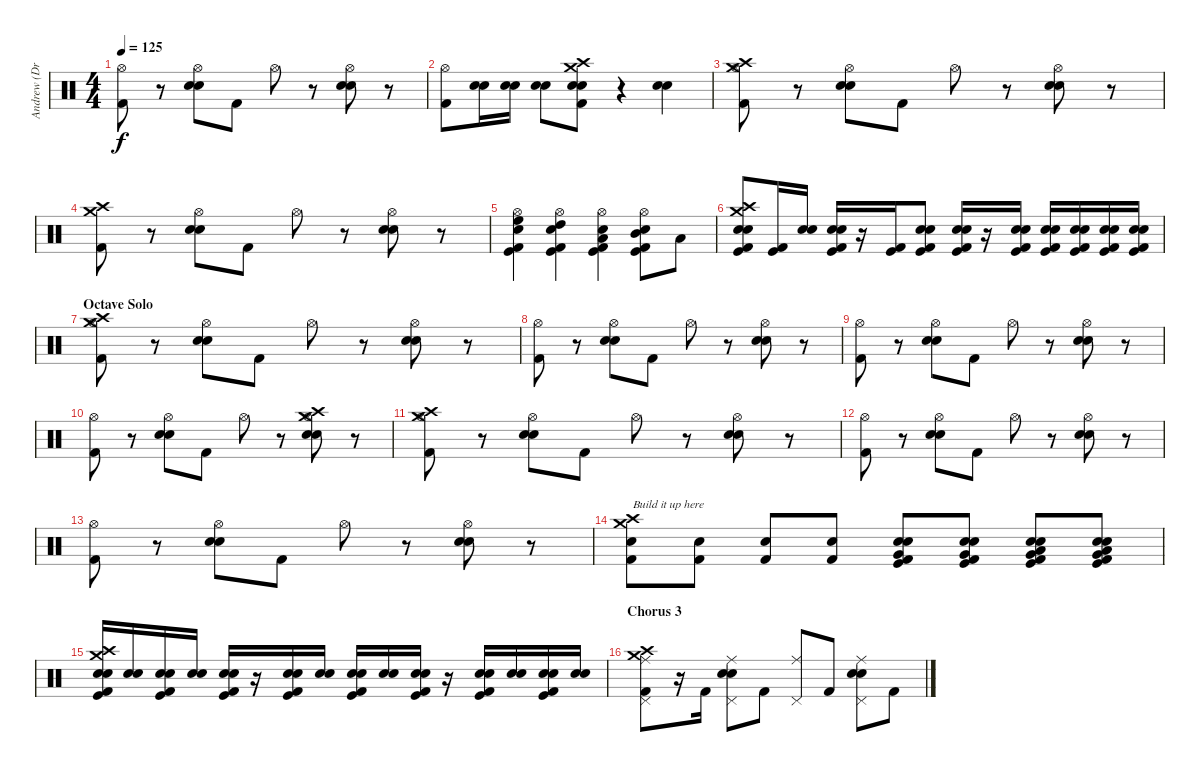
\track ("Andrew (Drums)" "Andrew (Dr") {instrument percussion}
\staff {score}
\articulation defaults
\ts (4 4)
\tempo 125
\clef neutral
\ks c
("Hi-Hat (open)" "Kick (hit) 2").8{dy f} r.8 ("Hi-Hat (open)" "Snare (hit) 2" "Electric Snare (hit)").8 "Kick (hit) 2".8 "Hi-Hat (open)".8 r.8 ("Hi-Hat (open)" "Snare (hit) 2" "Electric Snare (hit)").8 r.8 |
("Hi-Hat (open)" "Kick (hit) 2").8 ("Electric Snare (hit)" "Snare (hit) 2").16 ("Electric Snare (hit)" "Snare (hit) 2").16 ("Snare (hit) 2" "Electric Snare (hit)").8 ("Crash medium (hit)" "Crash high (hit)" "Electric Snare (hit)" "Snare (hit) 2" "Kick (hit) 2").8 r.4 ("Snare (hit) 2" "Electric Snare (hit)").4 |
("Crash medium (hit)" "Crash high (hit)" "Hi-Hat (open)" "Kick (hit) 2").8 r.8 ("Hi-Hat (open)" "Snare (hit) 2" "Electric Snare (hit)").8 "Kick (hit) 2".8 "Hi-Hat (open)".8 r.8 ("Hi-Hat (open)" "Snare (hit) 2" "Electric Snare (hit)").8 r.8 |
("Crash medium (hit)" "Crash high (hit)" "Kick (hit) 2").8 r.8 ("Hi-Hat (open)" "Snare (hit) 2" "Electric Snare (hit)").8 "Kick (hit) 2".8 "Hi-Hat (open)".8 r.8 ("Hi-Hat (open)" "Snare (hit) 2" "Electric Snare (hit)").8 r.8 |
("Hi-Hat (open)" "High Floor Tom (hit)" "Electric Snare (hit)" "Kick (hit) 2" "Kick (hit)").4 ("Hi-Hat (open)" "High Tom (hit)" "Electric Snare (hit)" "Kick (hit) 2" "Kick (hit)").4 ("Hi-Hat (open)" "Low Tom (hit)" "Electric Snare (hit)" "Kick (hit) 2" "Kick (hit)").4 ("Hi-Hat (open)" "Mid Tom (hit)" "Electric Snare (hit)" "Kick (hit) 2" "Kick (hit)").8 "Low Tom (hit)".8 |
("Crash high (hit)" "Crash medium (hit)" "Snare (hit) 2" "Electric Snare (hit)" "Kick (hit)" "Kick (hit) 2").8 ("Kick (hit)" "Kick (hit) 2").16 ("Snare (hit) 2" "Electric Snare (hit)").16 ("Snare (hit) 2" "Electric Snare (hit)" "Kick (hit)" "Kick (hit) 2").16 r.16 ("Kick (hit)" "Kick (hit) 2").16 ("Snare (hit) 2" "Electric Snare (hit)" "Kick (hit)" "Kick (hit) 2").8 ("Snare (hit) 2" "Electric Snare (hit)" "Kick (hit)" "Kick (hit) 2").16 r.16 ("Snare (hit) 2" "Electric Snare (hit)" "Kick (hit)" "Kick (hit) 2").16 ("Snare (hit) 2" "Electric Snare (hit)" "Kick (hit)" "Kick (hit) 2").16 ("Snare (hit) 2" "Electric Snare (hit)" "Kick (hit)" "Kick (hit) 2").16 ("Snare (hit) 2" "Electric Snare (hit)" "Kick (hit)" "Kick (hit) 2").16 ("Snare (hit) 2" "Electric Snare (hit)" "Kick (hit)" "Kick (hit) 2").16 |
\section ("" "Octave Solo")
("Crash high (hit)" "Crash medium (hit)" "Hi-Hat (open)" "Kick (hit) 2").8 r.8 ("Hi-Hat (open)" "Snare (hit) 2" "Electric Snare (hit)").8 "Kick (hit) 2".8 "Hi-Hat (open)".8 r.8 ("Hi-Hat (open)" "Snare (hit) 2" "Electric Snare (hit)").8 r.8 |
("Hi-Hat (open)" "Kick (hit) 2").8 r.8 ("Hi-Hat (open)" "Snare (hit) 2" "Electric Snare (hit)").8 "Kick (hit) 2".8 "Hi-Hat (open)".8 r.8 ("Hi-Hat (open)" "Snare (hit) 2" "Electric Snare (hit)").8 r.8 |
("Hi-Hat (open)" "Kick (hit) 2").8 r.8 ("Hi-Hat (open)" "Snare (hit) 2" "Electric Snare (hit)").8 "Kick (hit) 2".8 "Hi-Hat (open)".8 r.8 ("Hi-Hat (open)" "Snare (hit) 2" "Electric Snare (hit)").8 r.8 |
("Hi-Hat (open)" "Kick (hit) 2").8 r.8 ("Hi-Hat (open)" "Snare (hit) 2" "Electric Snare (hit)").8 "Kick (hit) 2".8 "Hi-Hat (open)".8 r.8 ("Crash medium (hit)" "Crash high (hit)" "Hi-Hat (open)" "Snare (hit) 2" "Electric Snare (hit)").8 r.8 |
("Crash medium (hit)" "Crash high (hit)" "Hi-Hat (open)" "Kick (hit) 2").8 r.8 ("Hi-Hat (open)" "Snare (hit) 2" "Electric Snare (hit)").8 "Kick (hit) 2".8 "Hi-Hat (open)".8 r.8 ("Hi-Hat (open)" "Snare (hit) 2" "Electric Snare (hit)").8 r.8 |
("Hi-Hat (open)" "Kick (hit) 2").8 r.8 ("Hi-Hat (open)" "Snare (hit) 2" "Electric Snare (hit)").8 "Kick (hit) 2".8 "Hi-Hat (open)".8 r.8 ("Hi-Hat (open)" "Snare (hit) 2" "Electric Snare (hit)").8 r.8 |
("Hi-Hat (open)" "Kick (hit) 2").8 r.8 ("Hi-Hat (open)" "Snare (hit) 2" "Electric Snare (hit)").8 "Kick (hit) 2".8 "Hi-Hat (open)".8 r.8 ("Hi-Hat (open)" "Snare (hit) 2" "Electric Snare (hit)").8 r.8 |
("Crash high (hit)" "Crash medium (hit)" "Snare (hit) 2" "Kick (hit) 2").8{txt "Build it up here"} ("Snare (hit) 2" "Kick (hit) 2").8 ("Snare (hit) 2" "Kick (hit) 2").8 ("Snare (hit) 2" "Kick (hit) 2").8 ("Very Low Tom (hit)" "Electric Snare (hit)" "Snare (hit) 2" "Kick (hit)" "Kick (hit) 2").8 ("Very Low Tom (hit)" "Electric Snare (hit)" "Snare (hit) 2" "Kick (hit)" "Kick (hit) 2").8 ("Low Floor Tom (hit)" "Very Low Tom (hit)" "Electric Snare (hit)" "Snare (hit) 2" "Kick (hit)" "Kick (hit) 2").8 ("Low Floor Tom (hit)" "Very Low Tom (hit)" "Electric Snare (hit)" "Snare (hit) 2" "Kick (hit)" "Kick (hit) 2").8 |
("Crash medium (hit)" "Snare (hit) 2" "Electric Snare (hit)" "Crash high (hit)" "Kick (hit)" "Kick (hit) 2").16 ("Snare (hit) 2" "Electric Snare (hit)").16 ("Snare (hit) 2" "Electric Snare (hit)" "Kick (hit)" "Kick (hit) 2").16 ("Snare (hit) 2" "Electric Snare (hit)").16 ("Snare (hit) 2" "Electric Snare (hit)" "Kick (hit)" "Kick (hit) 2").16 r.16 ("Snare (hit) 2" "Electric Snare (hit)" "Kick (hit)" "Kick (hit) 2").16 ("Snare (hit) 2" "Electric Snare (hit)").16 ("Snare (hit) 2" "Electric Snare (hit)" "Kick (hit)" "Kick (hit) 2").16 ("Snare (hit) 2" "Electric Snare (hit)").16 ("Snare (hit) 2" "Electric Snare (hit)" "Kick (hit)" "Kick (hit) 2").16 r.16 ("Snare (hit) 2" "Electric Snare (hit)" "Kick (hit)" "Kick (hit) 2").16 ("Snare (hit) 2" "Electric Snare (hit)").16 ("Snare (hit) 2" "Electric Snare (hit)" "Kick (hit)" "Kick (hit) 2").16 ("Snare (hit) 2" "Electric Snare (hit)").16 |
\section ("" "Chorus 3")
("Crash medium (hit)" "Crash high (hit)" "Pedal Hi-Hat (hit)" "Ride (middle)" "Kick (hit) 2").8 r.16 "Kick (hit) 2".16 ("Pedal Hi-Hat (hit)" "Ride (middle)" "Snare (hit) 2" "Electric Snare (hit)").8 "Kick (hit) 2".8 ("Pedal Hi-Hat (hit)" "Ride (middle)").8 "Kick (hit) 2".8 ("Pedal Hi-Hat (hit)" "Ride (middle)" "Snare (hit) 2" "Electric Snare (hit)").8 "Kick (hit) 2".8
